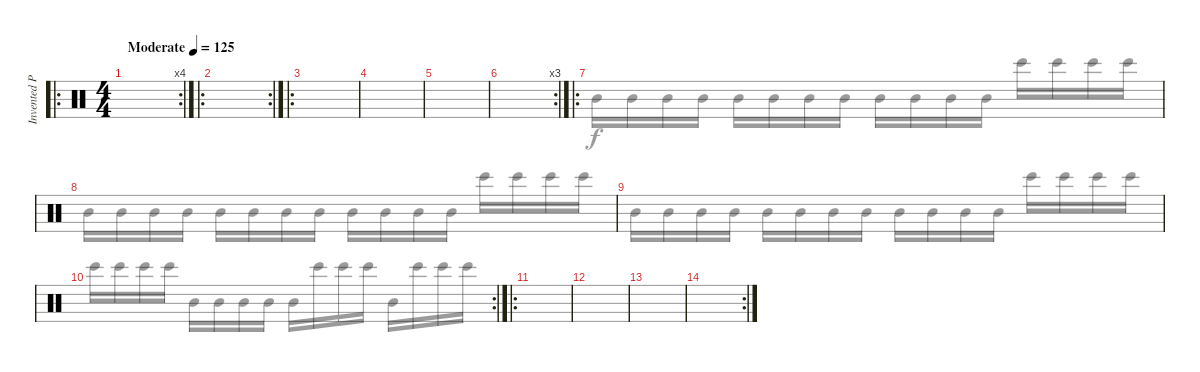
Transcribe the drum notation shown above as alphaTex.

\track ("Invented Percussion At the Begginning" "Invented P") {instrument percussion}
\staff {score}
\articulation defaults
\voice
\ro
\rc 4
\ts (4 4)
\tempo (125 "Moderate")
\clef neutral
\ks c
|
\ro
\rc 2
|
\ro
|
|
|
\rc 3
|
\ro
|
|
|
\rc 2
|
\ro
|
|
|
\rc 2
|
|
\voice
\clef neutral
\ks c
|
|
|
|
|
|
"Mid Tom (hit)".16 "Mid Tom (hit)".16 "Mid Tom (hit)".16 "Mid Tom (hit)".16 "Mid Tom (hit)".16 "Mid Tom (hit)".16 "Mid Tom (hit)".16 "Mid Tom (hit)".16 "Mid Tom (hit)".16 "Mid Tom (hit)".16 "Mid Tom (hit)".16 "Mid Tom (hit)".16 "Bongo High (hit)".16 "Bongo High (hit)".16 "Bongo High (hit)".16 "Bongo High (hit)".16 |
"Mid Tom (hit)".16 "Mid Tom (hit)".16 "Mid Tom (hit)".16 "Mid Tom (hit)".16 "Mid Tom (hit)".16 "Mid Tom (hit)".16 "Mid Tom (hit)".16 "Mid Tom (hit)".16 "Mid Tom (hit)".16 "Mid Tom (hit)".16 "Mid Tom (hit)".16 "Mid Tom (hit)".16 "Bongo High (hit)".16 "Bongo High (hit)".16 "Bongo High (hit)".16 "Bongo High (hit)".16 |
"Mid Tom (hit)".16 "Mid Tom (hit)".16 "Mid Tom (hit)".16 "Mid Tom (hit)".16 "Mid Tom (hit)".16 "Mid Tom (hit)".16 "Mid Tom (hit)".16 "Mid Tom (hit)".16 "Mid Tom (hit)".16 "Mid Tom (hit)".16 "Mid Tom (hit)".16 "Mid Tom (hit)".16 "Bongo High (hit)".16 "Bongo High (hit)".16 "Bongo High (hit)".16 "Bongo High (hit)".16 |
"Bongo High (hit)".16 "Bongo High (hit)".16 "Bongo High (hit)".16 "Bongo High (hit)".16 "Mid Tom (hit)".16 "Mid Tom (hit)".16 "Mid Tom (hit)".16 "Mid Tom (hit)".16 "Mid Tom (hit)".16 "Bongo High (hit)".16 "Bongo High (hit)".16 "Bongo High (hit)".16 "Mid Tom (hit)".16 "Bongo High (hit)".16 "Bongo High (hit)".16 "Bongo High (hit)".16 |
|
|
|
|
|
